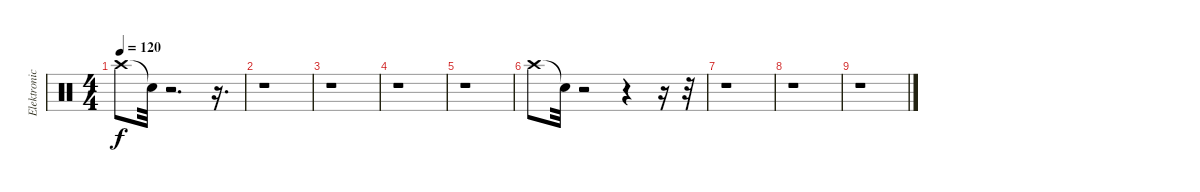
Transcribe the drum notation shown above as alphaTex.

\track ("Elektronické bicí 2" "Elektronic") {instrument percussion}
\staff {score}
\articulation defaults
\ts (4 4)
\tempo 120
\clef neutral
\ks c "Crash high (hit)".8{dy f} "Snare (hit)"{t}.32
r.2{d} r.16{d} |
r.1 |
r.1 |
r.1 |
r.1 |
"Crash high (hit)".8 "Snare (hit)"{t}.32 r.2 r.4 r.16 r.32 |
r.1 |
r.1 |
r.1
